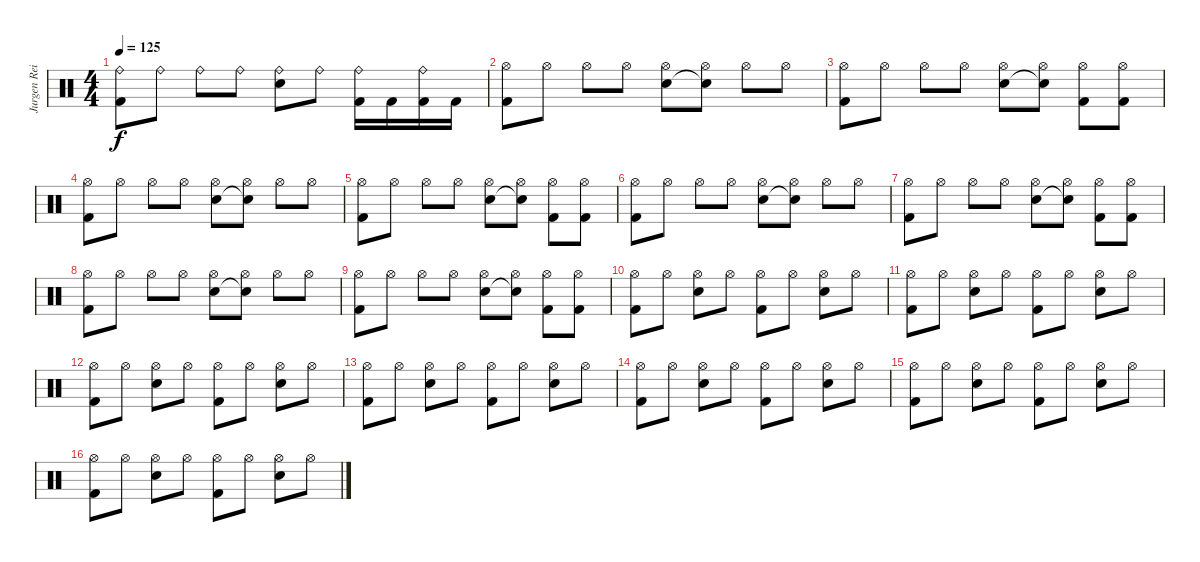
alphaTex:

\track ("Jurgen Reil" "Jurgen Rei") {instrument percussion}
\staff {score}
\articulation defaults
\ts (4 4)
\tempo 125
\clef neutral
\ks c
("Ride (bell)" "Kick (hit) 2").8{dy f} "Ride (bell)".8 "Ride (bell)".8 "Ride (bell)".8 ("Ride (bell)" "Snare (hit) 2").8 "Ride (bell)".8 ("Ride (bell)" "Kick (hit) 2").16 "Kick (hit) 2".16 ("Ride (bell)" "Kick (hit) 2").16 "Kick (hit) 2".16 |
("Hi-Hat (open)" "Kick (hit) 2").8 "Hi-Hat (open)".8 "Hi-Hat (open)".8 "Hi-Hat (open)".8 ("Hi-Hat (open)" "Snare (hit) 2").8 ("Hi-Hat (open)" "Snare (hit)"{t}).8 "Hi-Hat (open)".8 "Hi-Hat (open)".8 |
("Hi-Hat (open)" "Kick (hit) 2").8 "Hi-Hat (open)".8 "Hi-Hat (open)".8 "Hi-Hat (open)".8 ("Hi-Hat (open)" "Snare (hit) 2").8 ("Hi-Hat (open)" "Snare (hit)"{t}).8 ("Hi-Hat (open)" "Kick (hit) 2").8 ("Hi-Hat (open)" "Kick (hit) 2").8 |
("Hi-Hat (open)" "Kick (hit) 2").8 "Hi-Hat (open)".8 "Hi-Hat (open)".8 "Hi-Hat (open)".8 ("Hi-Hat (open)" "Snare (hit) 2").8 ("Hi-Hat (open)" "Snare (hit)"{t}).8 "Hi-Hat (open)".8 "Hi-Hat (open)".8 |
("Hi-Hat (open)" "Kick (hit) 2").8 "Hi-Hat (open)".8 "Hi-Hat (open)".8 "Hi-Hat (open)".8 ("Hi-Hat (open)" "Snare (hit) 2").8 ("Hi-Hat (open)" "Snare (hit)"{t}).8 ("Hi-Hat (open)" "Kick (hit) 2").8 ("Hi-Hat (open)" "Kick (hit) 2").8 |
("Hi-Hat (open)" "Kick (hit) 2").8 "Hi-Hat (open)".8 "Hi-Hat (open)".8 "Hi-Hat (open)".8 ("Hi-Hat (open)" "Snare (hit) 2").8 ("Hi-Hat (open)" "Snare (hit)"{t}).8 "Hi-Hat (open)".8 "Hi-Hat (open)".8 |
("Hi-Hat (open)" "Kick (hit) 2").8 "Hi-Hat (open)".8 "Hi-Hat (open)".8 "Hi-Hat (open)".8 ("Hi-Hat (open)" "Snare (hit) 2").8 ("Hi-Hat (open)" "Snare (hit)"{t}).8 ("Hi-Hat (open)" "Kick (hit) 2").8 ("Hi-Hat (open)" "Kick (hit) 2").8 |
("Hi-Hat (open)" "Kick (hit) 2").8 "Hi-Hat (open)".8 "Hi-Hat (open)".8 "Hi-Hat (open)".8 ("Hi-Hat (open)" "Snare (hit) 2").8 ("Hi-Hat (open)" "Snare (hit)"{t}).8 "Hi-Hat (open)".8 "Hi-Hat (open)".8 |
("Hi-Hat (open)" "Kick (hit) 2").8 "Hi-Hat (open)".8 "Hi-Hat (open)".8 "Hi-Hat (open)".8 ("Hi-Hat (open)" "Snare (hit) 2").8 ("Hi-Hat (open)" "Snare (hit)"{t}).8 ("Hi-Hat (open)" "Kick (hit) 2").8 ("Hi-Hat (open)" "Kick (hit) 2").8 |
("Hi-Hat (open)" "Kick (hit) 2").8 "Hi-Hat (open)".8 ("Hi-Hat (open)" "Snare (hit) 2").8 "Hi-Hat (open)".8 ("Hi-Hat (open)" "Kick (hit) 2").8 "Hi-Hat (open)".8 ("Hi-Hat (open)" "Snare (hit) 2").8 "Hi-Hat (open)".8 |
("Hi-Hat (open)" "Kick (hit) 2").8 "Hi-Hat (open)".8 ("Hi-Hat (open)" "Snare (hit) 2").8 "Hi-Hat (open)".8 ("Hi-Hat (open)" "Kick (hit) 2").8 "Hi-Hat (open)".8 ("Hi-Hat (open)" "Snare (hit) 2").8 "Hi-Hat (open)".8 |
("Hi-Hat (open)" "Kick (hit) 2").8 "Hi-Hat (open)".8 ("Hi-Hat (open)" "Snare (hit) 2").8 "Hi-Hat (open)".8 ("Hi-Hat (open)" "Kick (hit) 2").8 "Hi-Hat (open)".8 ("Hi-Hat (open)" "Snare (hit) 2").8 "Hi-Hat (open)".8 |
("Hi-Hat (open)" "Kick (hit) 2").8 "Hi-Hat (open)".8 ("Hi-Hat (open)" "Snare (hit) 2").8 "Hi-Hat (open)".8 ("Hi-Hat (open)" "Kick (hit) 2").8 "Hi-Hat (open)".8 ("Hi-Hat (open)" "Snare (hit) 2").8 "Hi-Hat (open)".8 |
("Hi-Hat (open)" "Kick (hit) 2").8 "Hi-Hat (open)".8 ("Hi-Hat (open)" "Snare (hit) 2").8 "Hi-Hat (open)".8 ("Hi-Hat (open)" "Kick (hit) 2").8 "Hi-Hat (open)".8 ("Hi-Hat (open)" "Snare (hit) 2").8 "Hi-Hat (open)".8 |
("Hi-Hat (open)" "Kick (hit) 2").8 "Hi-Hat (open)".8 ("Hi-Hat (open)" "Snare (hit) 2").8 "Hi-Hat (open)".8 ("Hi-Hat (open)" "Kick (hit) 2").8 "Hi-Hat (open)".8 ("Hi-Hat (open)" "Snare (hit) 2").8 "Hi-Hat (open)".8 |
("Hi-Hat (open)" "Kick (hit) 2").8 "Hi-Hat (open)".8 ("Hi-Hat (open)" "Snare (hit) 2").8 "Hi-Hat (open)".8 ("Hi-Hat (open)" "Kick (hit) 2").8 "Hi-Hat (open)".8 ("Hi-Hat (open)" "Snare (hit) 2").8 "Hi-Hat (open)".8
